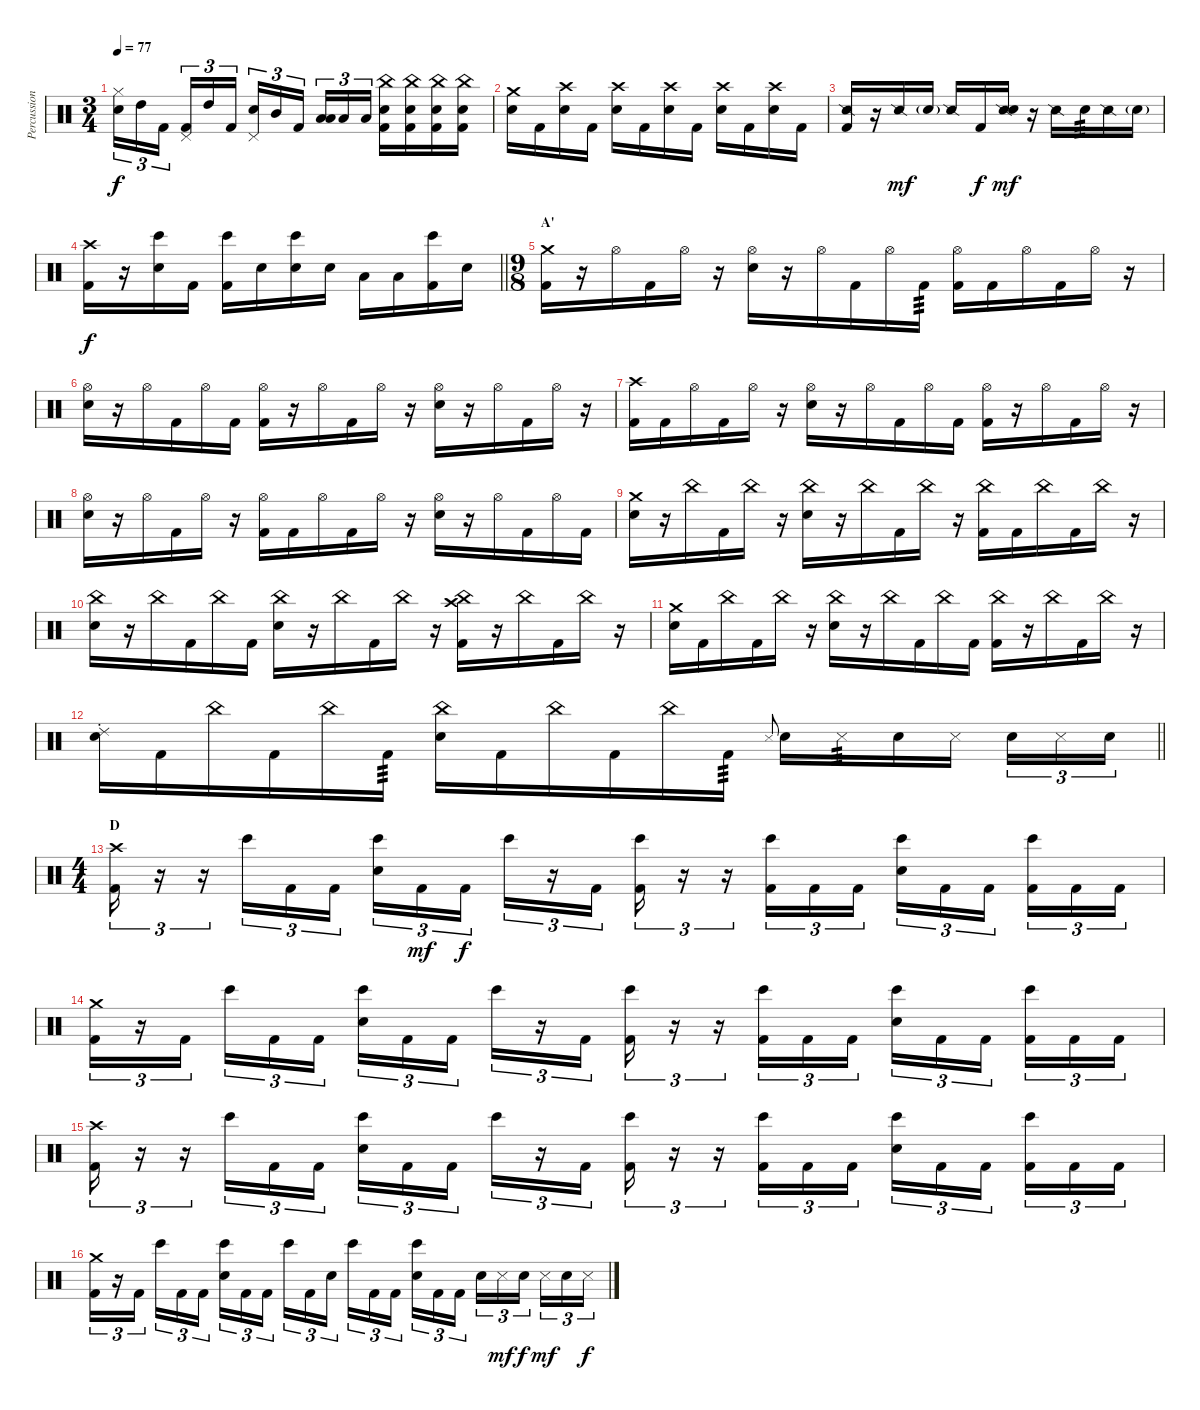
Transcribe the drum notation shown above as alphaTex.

\track ("Percussion" "Percussion") {instrument percussion}
\staff {score}
\articulation defaults
\ts (3 4)
\tempo 77
\clef neutral
\ks c
("Hi-Hat (closed)" "Snare (hit) 2").16{tu (3 2) dy f} "High Tom (hit)".16{tu (3 2)} "Kick (hit) 2".16{tu (3 2) beam splitsecondary} ("Pedal Hi-Hat (hit)" "Kick (hit) 2").16{tu (3 2)} "High Tom (hit)".16{tu (3 2)} "Kick (hit) 2".16{tu (3 2)} ("Pedal Hi-Hat (hit)" "Snare (hit) 2").16{tu (3 2)} "Mid Tom (hit)".16{tu (3 2)} "Kick (hit) 2".16{tu (3 2) beam splitsecondary} ("Low Floor Tom (hit)" "Low Floor Tom (hit)").16{tu (3 2) bu 480} "Low Floor Tom (hit)".16{tu (3 2)} "Low Floor Tom (hit)".16{tu (3 2)} ("China (hit)" "Snare (hit) 2" "Kick (hit) 2").16 ("China (hit)" "Snare (hit) 2" "Kick (hit) 2").16 ("China (hit)" "Snare (hit) 2" "Kick (hit) 2").16 ("China (hit)" "Snare (hit) 2" "Kick (hit) 2").16 |
("Crash medium (hit)" "Snare (hit) 2").16 "Kick (hit) 2".16 ("Crash high (hit)" "Snare (hit) 2").16 "Kick (hit) 2".16 ("Crash high (hit)" "Snare (hit) 2").16 "Kick (hit) 2".16 ("Crash high (hit)" "Snare (hit) 2").16 "Kick (hit) 2".16 ("Crash high (hit)" "Snare (hit) 2").16 "Kick (hit) 2".16 ("Crash high (hit)" "Snare (hit) 2").16 "Kick (hit) 2".16 |
("Snare (side stick) 2" "Kick (hit) 2").16 r.16 "Snare (side stick) 2".16{dy mf} "Snare (hit) 2"{g}.16 "Snare (side stick) 2".16 "Kick (hit) 2".16{dy f} ("Snare (side stick) 2" "Snare (hit) 2").16{dy mf} r.16 "Snare (side stick) 2".16 "Snare (hit) 2".16{tp 3} "Snare (side stick) 2".16 "Snare (hit) 2"{g}.16 |
\barLineRight lightlight
("Crash high (hit)" "Kick (hit) 2").16{dy f} r.16 ("Bongo High (hit)" "Snare (hit) 2").16 "Kick (hit) 2".16 ("Bongo High (hit)" "Kick (hit) 2").16 "Snare (hit) 2".16 ("Bongo High (hit)" "Snare (hit) 2").16 "Snare (hit) 2".16 "Low Tom (hit)".16 "Low Tom (hit)".16 ("Bongo High (hit)" "Kick (hit) 2").16 "Snare (hit) 2".16 |
\ts (9 8)
\section ("" "A'")
("Crash medium (hit)" "Kick (hit) 2").16 r.16 "Hi-Hat (open)".16 "Kick (hit) 2".16 "Hi-Hat (open)".16 r.16 ("Hi-Hat (open)" "Snare (hit) 2").16 r.16 "Hi-Hat (open)".16 "Kick (hit) 2".16 "Hi-Hat (open)".16 "Kick (hit) 2".16{tp 3} ("Hi-Hat (open)" "Kick (hit) 2").16 "Kick (hit) 2".16 "Hi-Hat (open)".16 "Kick (hit) 2".16 "Hi-Hat (open)".16 r.16 |
("Hi-Hat (open)" "Snare (hit) 2").16 r.16 "Hi-Hat (open)".16 "Kick (hit) 2".16 "Hi-Hat (open)".16 "Kick (hit) 2".16 ("Hi-Hat (open)" "Kick (hit) 2").16 r.16 "Hi-Hat (open)".16 "Kick (hit) 2".16 "Hi-Hat (open)".16 r.16 ("Hi-Hat (open)" "Snare (hit) 2").16 r.16 "Hi-Hat (open)".16 "Kick (hit) 2".16 "Hi-Hat (open)".16 r.16 |
("Crash high (hit)" "Kick (hit) 2").16 "Kick (hit) 2".16 "Hi-Hat (open)".16 "Kick (hit) 2".16 "Hi-Hat (open)".16 r.16 ("Hi-Hat (open)" "Snare (hit) 2").16 r.16 "Hi-Hat (open)".16 "Kick (hit) 2".16 "Hi-Hat (open)".16 "Kick (hit) 2".16 ("Hi-Hat (open)" "Kick (hit) 2").16 r.16 "Hi-Hat (open)".16 "Kick (hit) 2".16 "Hi-Hat (open)".16 r.16 |
("Hi-Hat (open)" "Snare (hit) 2").16 r.16 "Hi-Hat (open)".16 "Kick (hit) 2".16 "Hi-Hat (open)".16 r.16 ("Hi-Hat (open)" "Kick (hit) 2").16 "Kick (hit) 2".16 "Hi-Hat (open)".16 "Kick (hit) 2".16 "Hi-Hat (open)".16 r.16 ("Hi-Hat (open)" "Snare (hit) 2").16 r.16 "Hi-Hat (open)".16 "Kick (hit) 2".16 "Hi-Hat (open)".16 "Kick (hit) 2".16 |
("Crash medium (hit)" "Snare (hit) 2").16 r.16 "China (hit)".16 "Kick (hit) 2".16 "China (hit)".16 r.16 ("China (hit)" "Snare (hit) 2").16 r.16 "China (hit)".16 "Kick (hit) 2".16 "China (hit)".16 r.16 ("China (hit)" "Kick (hit) 2").16 "Kick (hit) 2".16 "China (hit)".16 "Kick (hit) 2".16 "China (hit)".16 r.16 |
("China (hit)" "Snare (hit) 2").16 r.16 "China (hit)".16 "Kick (hit) 2".16 "China (hit)".16 "Kick (hit) 2".16 ("China (hit)" "Snare (hit) 2").16 r.16 "China (hit)".16 "Kick (hit) 2".16 "China (hit)".16 r.16 ("China (hit)" "Crash high (hit)" "Kick (hit) 2").16 r.16 "China (hit)".16 "Kick (hit) 2".16 "China (hit)".16 r.16 |
("Crash medium (hit)" "Snare (hit) 2").16 "Kick (hit) 2".16 "China (hit)".16 "Kick (hit) 2".16 "China (hit)".16 r.16 ("China (hit)" "Snare (hit) 2").16 r.16 "China (hit)".16 "Kick (hit) 2".16 "China (hit)".16 "Kick (hit) 2".16 ("China (hit)" "Kick (hit) 2").16 r.16 "China (hit)".16 "Kick (hit) 2".16 "China (hit)".16 r.16 |
\barLineRight lightlight
("Ride (choke) 2" "Snare (hit) 2").16 "Kick (hit) 2".16 "China (hit)".16 "Kick (hit) 2".16 "China (hit)".16 "Kick (hit) 2".16{tp 3} ("China (hit)" "Snare (hit) 2").16 "Kick (hit) 2".16 "China (hit)".16 "Kick (hit) 2".16 "China (hit)".16 "Kick (hit) 2".16{tp 3} "Metronome (hit)".8{gr onbeat} "Snare (hit) 2".16 "Metronome (hit)".16{tp 3} "Snare (hit) 2".16 "Metronome (hit)".16{beam splitsecondary} "Snare (hit) 2".16{tu (3 2)} "Metronome (hit)".16{tu (3 2)} "Snare (hit) 2".16{tu (3 2)} |
\ts (4 4)
\section ("" "D")
("Crash high (hit)" "Kick (hit) 2").16{tu (3 2)} r.16{tu (3 2)} r.16{tu (3 2)} "Bongo High (hit)".16{tu (3 2)} "Kick (hit) 2".16{tu (3 2)} "Kick (hit) 2".16{tu (3 2)} ("Bongo High (hit)" "Snare (hit) 2").16{tu (3 2)} "Kick (hit) 2".16{tu (3 2) dy mf} "Kick (hit) 2".16{tu (3 2) dy f beam splitsecondary} "Bongo High (hit)".16{tu (3 2)} r.16{tu (3 2)} "Kick (hit) 2".16{tu (3 2)} ("Bongo High (hit)" "Kick (hit) 2").16{tu (3 2)} r.16{tu (3 2)} r.16{tu (3 2)} ("Bongo High (hit)" "Kick (hit) 2").16{tu (3 2)} "Kick (hit) 2".16{tu (3 2)} "Kick (hit) 2".16{tu (3 2)} ("Bongo High (hit)" "Snare (hit) 2").16{tu (3 2)} "Kick (hit) 2".16{tu (3 2)} "Kick (hit) 2".16{tu (3 2) beam splitsecondary} ("Bongo High (hit)" "Kick (hit) 2").16{tu (3 2)} "Kick (hit) 2".16{tu (3 2)} "Kick (hit) 2".16{tu (3 2)} |
("Crash medium (hit)" "Kick (hit) 2").16{tu (3 2)} r.16{tu (3 2)} "Kick (hit) 2".16{tu (3 2) beam splitsecondary} "Bongo High (hit)".16{tu (3 2)} "Kick (hit) 2".16{tu (3 2)} "Kick (hit) 2".16{tu (3 2)} ("Bongo High (hit)" "Snare (hit) 2").16{tu (3 2)} "Kick (hit) 2".16{tu (3 2)} "Kick (hit) 2".16{tu (3 2) beam splitsecondary} "Bongo High (hit)".16{tu (3 2)} r.16{tu (3 2)} "Kick (hit) 2".16{tu (3 2)} ("Bongo High (hit)" "Kick (hit) 2").16{tu (3 2)} r.16{tu (3 2)} r.16{tu (3 2)} ("Bongo High (hit)" "Kick (hit) 2").16{tu (3 2)} "Kick (hit) 2".16{tu (3 2)} "Kick (hit) 2".16{tu (3 2)} ("Bongo High (hit)" "Snare (hit) 2").16{tu (3 2)} "Kick (hit) 2".16{tu (3 2)} "Kick (hit) 2".16{tu (3 2) beam splitsecondary} ("Bongo High (hit)" "Kick (hit) 2").16{tu (3 2)} "Kick (hit) 2".16{tu (3 2)} "Kick (hit) 2".16{tu (3 2)} |
("Crash high (hit)" "Kick (hit) 2").16{tu (3 2)} r.16{tu (3 2)} r.16{tu (3 2)} "Bongo High (hit)".16{tu (3 2)} "Kick (hit) 2".16{tu (3 2)} "Kick (hit) 2".16{tu (3 2)} ("Bongo High (hit)" "Snare (hit) 2").16{tu (3 2)} "Kick (hit) 2".16{tu (3 2)} "Kick (hit) 2".16{tu (3 2) beam splitsecondary} "Bongo High (hit)".16{tu (3 2)} r.16{tu (3 2)} "Kick (hit) 2".16{tu (3 2)} ("Bongo High (hit)" "Kick (hit) 2").16{tu (3 2)} r.16{tu (3 2)} r.16{tu (3 2)} ("Bongo High (hit)" "Kick (hit) 2").16{tu (3 2)} "Kick (hit) 2".16{tu (3 2)} "Kick (hit) 2".16{tu (3 2)} ("Bongo High (hit)" "Snare (hit) 2").16{tu (3 2)} "Kick (hit) 2".16{tu (3 2)} "Kick (hit) 2".16{tu (3 2) beam splitsecondary} ("Bongo High (hit)" "Kick (hit) 2").16{tu (3 2)} "Kick (hit) 2".16{tu (3 2)} "Kick (hit) 2".16{tu (3 2)} |
("Crash medium (hit)" "Kick (hit) 2").16{tu (3 2)} r.16{tu (3 2)} "Kick (hit) 2".16{tu (3 2) beam splitsecondary} "Bongo High (hit)".16{tu (3 2)} "Kick (hit) 2".16{tu (3 2)} "Kick (hit) 2".16{tu (3 2)} ("Bongo High (hit)" "Snare (hit) 2").16{tu (3 2)} "Kick (hit) 2".16{tu (3 2)} "Kick (hit) 2".16{tu (3 2) beam splitsecondary} "Bongo High (hit)".16{tu (3 2)} "Kick (hit) 2".16{tu (3 2)} "Snare (hit) 2".16{tu (3 2)} "Bongo High (hit)".16{tu (3 2)} "Kick (hit) 2".16{tu (3 2)} "Kick (hit) 2".16{tu (3 2) beam splitsecondary} ("Bongo High (hit)" "Snare (hit) 2").16{tu (3 2)} "Kick (hit) 2".16{tu (3 2)} "Kick (hit) 2".16{tu (3 2)} "Snare (hit) 2".16{tu (3 2)} "Metronome (hit)".16{tu (3 2) dy mf} "Snare (hit) 2".16{tu (3 2) dy f beam splitsecondary} "Metronome (hit)".16{tu (3 2) dy mf} "Snare (hit) 2".16{tu (3 2)} "Metronome (hit)".16{tu (3 2) dy f}
